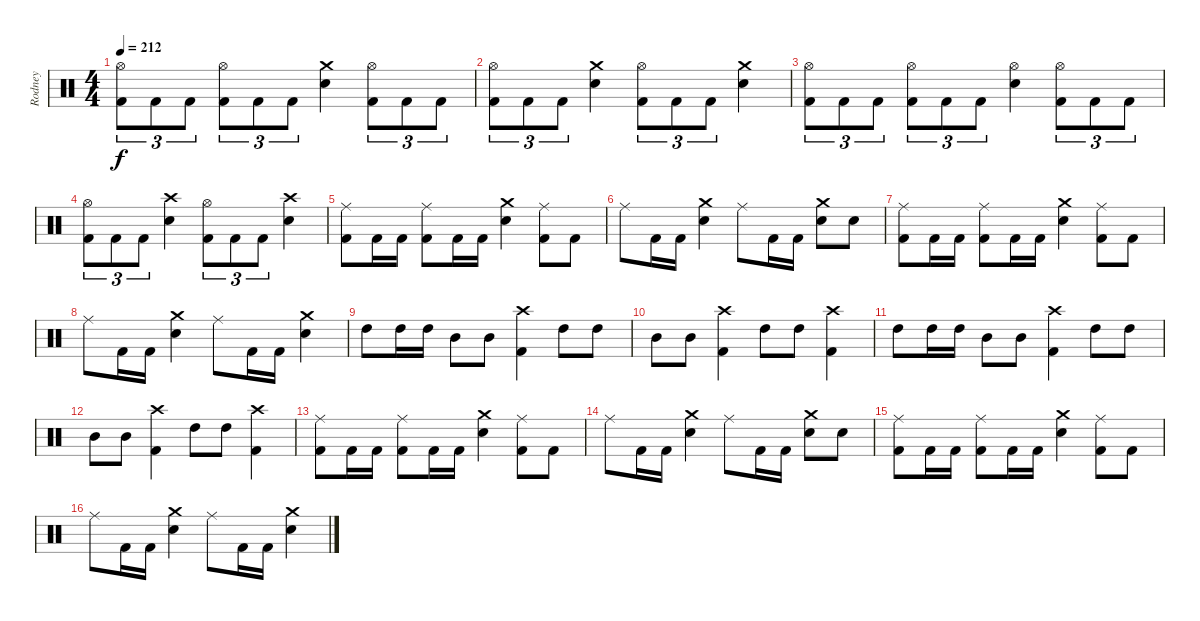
\track ("Rodney" "Rodney") {instrument percussion}
\staff {score}
\articulation defaults
\ts (4 4)
\tempo 212
\clef neutral
\ks c
("Hi-Hat (open)" "Kick (hit) 2").8{tu (3 2) dy f} "Kick (hit) 2".8{tu (3 2)} "Kick (hit) 2".8{tu (3 2)} ("Hi-Hat (open)" "Kick (hit) 2").8{tu (3 2)} "Kick (hit) 2".8{tu (3 2)} "Kick (hit) 2".8{tu (3 2)} ("Crash medium (hit)" "Snare (hit) 2").4 ("Hi-Hat (open)" "Kick (hit) 2").8{tu (3 2)} "Kick (hit) 2".8{tu (3 2)} "Kick (hit) 2".8{tu (3 2)} |
("Hi-Hat (open)" "Kick (hit) 2").8{tu (3 2)} "Kick (hit) 2".8{tu (3 2)} "Kick (hit) 2".8{tu (3 2)} ("Crash medium (hit)" "Snare (hit) 2").4 ("Hi-Hat (open)" "Kick (hit) 2").8{tu (3 2)} "Kick (hit) 2".8{tu (3 2)} "Kick (hit) 2".8{tu (3 2)} ("Crash medium (hit)" "Snare (hit) 2").4 |
("Hi-Hat (open)" "Kick (hit) 2").8{tu (3 2)} "Kick (hit) 2".8{tu (3 2)} "Kick (hit) 2".8{tu (3 2)} ("Hi-Hat (open)" "Kick (hit) 2").8{tu (3 2)} "Kick (hit) 2".8{tu (3 2)} "Kick (hit) 2".8{tu (3 2)} ("Hi-Hat (open)" "Snare (hit) 2").4 ("Hi-Hat (open)" "Kick (hit) 2").8{tu (3 2)} "Kick (hit) 2".8{tu (3 2)} "Kick (hit) 2".8{tu (3 2)} |
("Hi-Hat (open)" "Kick (hit) 2").8{tu (3 2)} "Kick (hit) 2".8{tu (3 2)} "Kick (hit) 2".8{tu (3 2)} ("Crash high (hit)" "Snare (hit) 2").4 ("Hi-Hat (open)" "Kick (hit) 2").8{tu (3 2)} "Kick (hit) 2".8{tu (3 2)} "Kick (hit) 2".8{tu (3 2)} ("Crash high (hit)" "Snare (hit) 2").4 |
("Ride (middle)" "Kick (hit) 2").8 "Kick (hit) 2".16 "Kick (hit) 2".16 ("Ride (middle)" "Kick (hit) 2").8 "Kick (hit) 2".16 "Kick (hit) 2".16 ("Crash medium (hit)" "Snare (hit) 2").4 ("Ride (middle)" "Kick (hit) 2").8 "Kick (hit) 2".8 |
"Ride (middle)".8 "Kick (hit) 2".16 "Kick (hit) 2".16 ("Crash medium (hit)" "Snare (hit) 2").4 "Ride (middle)".8 "Kick (hit) 2".16 "Kick (hit) 2".16 ("Crash medium (hit)" "Snare (hit) 2").8 "Snare (hit) 2".8 |
("Ride (middle)" "Kick (hit) 2").8 "Kick (hit) 2".16 "Kick (hit) 2".16 ("Ride (middle)" "Kick (hit) 2").8 "Kick (hit) 2".16 "Kick (hit) 2".16 ("Crash medium (hit)" "Snare (hit) 2").4 ("Ride (middle)" "Kick (hit) 2").8 "Kick (hit) 2".8 |
"Ride (middle)".8 "Kick (hit) 2".16 "Kick (hit) 2".16 ("Crash medium (hit)" "Snare (hit) 2").4 "Ride (middle)".8 "Kick (hit) 2".16 "Kick (hit) 2".16 ("Crash medium (hit)" "Snare (hit) 2").4 |
"High Tom (hit)".8 "High Tom (hit)".16 "High Tom (hit)".16 "Mid Tom (hit)".8 "Mid Tom (hit)".8 ("Crash high (hit)" "Kick (hit) 2").4 "High Tom (hit)".8 "High Tom (hit)".8 |
"Mid Tom (hit)".8 "Mid Tom (hit)".8 ("Crash high (hit)" "Kick (hit) 2").4 "High Tom (hit)".8 "High Tom (hit)".8 ("Crash high (hit)" "Kick (hit) 2").4 |
"High Tom (hit)".8 "High Tom (hit)".16 "High Tom (hit)".16 "Mid Tom (hit)".8 "Mid Tom (hit)".8 ("Crash high (hit)" "Kick (hit) 2").4 "High Tom (hit)".8 "High Tom (hit)".8 |
"Mid Tom (hit)".8 "Mid Tom (hit)".8 ("Crash high (hit)" "Kick (hit) 2").4 "High Tom (hit)".8 "High Tom (hit)".8 ("Crash high (hit)" "Kick (hit) 2").4 |
("Ride (middle)" "Kick (hit) 2").8 "Kick (hit) 2".16 "Kick (hit) 2".16 ("Ride (middle)" "Kick (hit) 2").8 "Kick (hit) 2".16 "Kick (hit) 2".16 ("Crash medium (hit)" "Snare (hit) 2").4 ("Ride (middle)" "Kick (hit) 2").8 "Kick (hit) 2".8 |
"Ride (middle)".8 "Kick (hit) 2".16 "Kick (hit) 2".16 ("Crash medium (hit)" "Snare (hit) 2").4 "Ride (middle)".8 "Kick (hit) 2".16 "Kick (hit) 2".16 ("Crash medium (hit)" "Snare (hit) 2").8 "Snare (hit) 2".8 |
("Ride (middle)" "Kick (hit) 2").8 "Kick (hit) 2".16 "Kick (hit) 2".16 ("Ride (middle)" "Kick (hit) 2").8 "Kick (hit) 2".16 "Kick (hit) 2".16 ("Crash medium (hit)" "Snare (hit) 2").4 ("Ride (middle)" "Kick (hit) 2").8 "Kick (hit) 2".8 |
"Ride (middle)".8 "Kick (hit) 2".16 "Kick (hit) 2".16 ("Crash medium (hit)" "Snare (hit) 2").4 "Ride (middle)".8 "Kick (hit) 2".16 "Kick (hit) 2".16 ("Crash medium (hit)" "Snare (hit) 2").4
